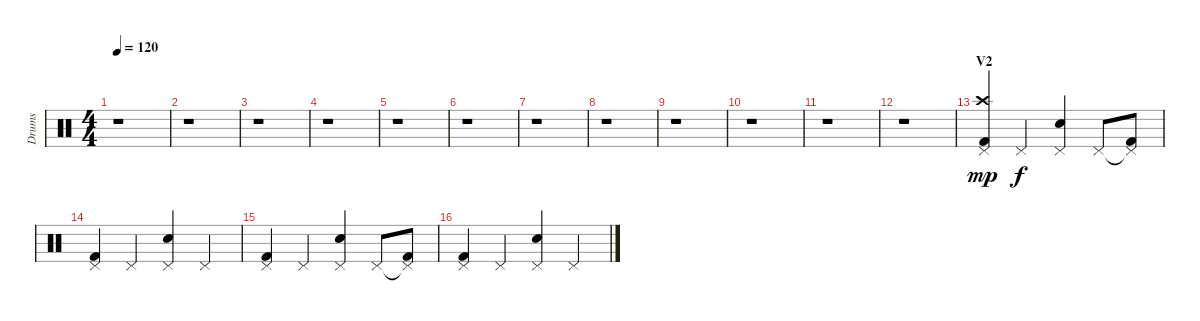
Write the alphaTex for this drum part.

\track ("Drums" "Drums") {instrument percussion}
\staff {score}
\articulation defaults
\ts (4 4)
\tempo 120
\clef neutral
\ks c
r.1{dy f} |
r.1 |
r.1 |
r.1 |
r.1 |
r.1 |
r.1 |
r.1 |
r.1 |
r.1 |
r.1 |
r.1 |
\section ("" "V2")
("Pedal Hi-Hat (hit)" "Crash high (hit)" "Kick (hit) 2").4{dy mp} "Pedal Hi-Hat (hit)".4{dy f} ("Pedal Hi-Hat (hit)" "Snare (hit) 2").4 "Pedal Hi-Hat (hit)".8 ("Pedal Hi-Hat (hit)"{t} "Kick (hit) 2").8 |
("Pedal Hi-Hat (hit)" "Kick (hit) 2").4 "Pedal Hi-Hat (hit)".4 ("Pedal Hi-Hat (hit)" "Snare (hit) 2").4 "Pedal Hi-Hat (hit)".4 |
("Pedal Hi-Hat (hit)" "Kick (hit) 2").4 "Pedal Hi-Hat (hit)".4 ("Pedal Hi-Hat (hit)" "Snare (hit) 2").4 "Pedal Hi-Hat (hit)".8 ("Pedal Hi-Hat (hit)"{t} "Kick (hit) 2").8 |
("Pedal Hi-Hat (hit)" "Kick (hit) 2").4 "Pedal Hi-Hat (hit)".4 ("Pedal Hi-Hat (hit)" "Snare (hit) 2").4 "Pedal Hi-Hat (hit)".4
